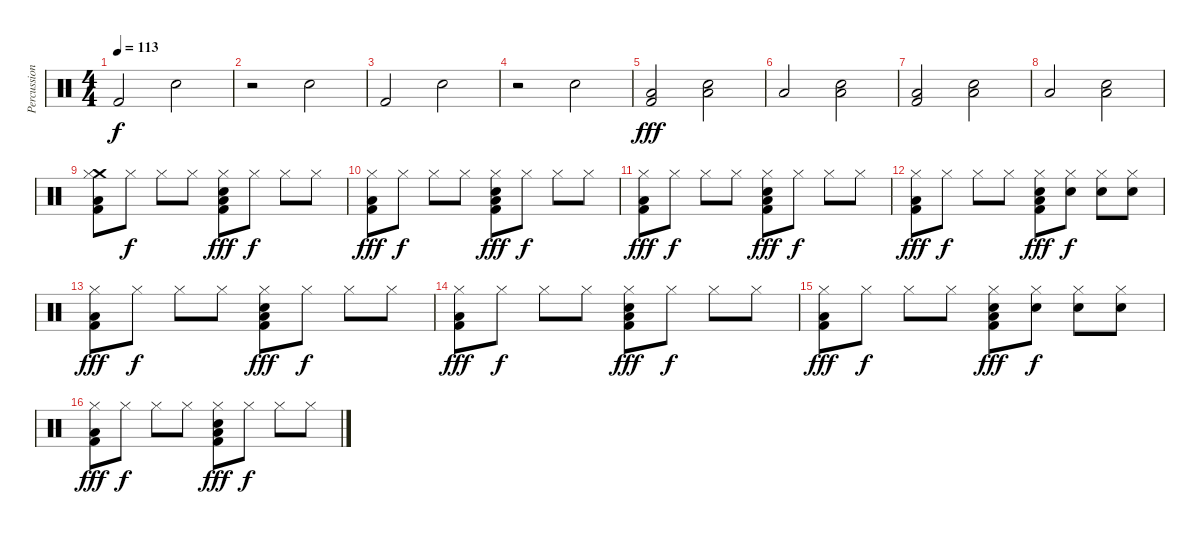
\track ("Percussion" "Percussion") {instrument percussion}
\staff {score}
\articulation defaults
\ts (4 4)
\tempo 113
\clef neutral
\ks c "Kick (hit) 2".2{dy f} "Electric Snare (hit)".2
|
r.2 "Electric Snare (hit)".2 |
"Kick (hit) 2".2 "Electric Snare (hit)".2 |
r.2 "Electric Snare (hit)".2 |
("Low Floor Tom (hit)" "Kick (hit) 2").2{dy fff} ("Low Floor Tom (hit)" "Electric Snare (hit)").2 |
"Low Floor Tom (hit)".2 ("Low Floor Tom (hit)" "Electric Snare (hit)").2 |
("Low Floor Tom (hit)" "Kick (hit) 2").2 ("Low Floor Tom (hit)" "Electric Snare (hit)").2 |
"Low Floor Tom (hit)".2 ("Low Floor Tom (hit)" "Electric Snare (hit)").2 |
("Crash medium (hit)" "Low Floor Tom (hit)" "Hi-Hat (closed)" "Kick (hit) 2").8 "Hi-Hat (closed)".8{dy f} "Hi-Hat (closed)".8 "Hi-Hat (closed)".8 ("Low Floor Tom (hit)" "Hi-Hat (closed)" "Electric Snare (hit)" "Kick (hit) 2").8{dy fff} "Hi-Hat (closed)".8{dy f} "Hi-Hat (closed)".8 "Hi-Hat (closed)".8 |
("Low Floor Tom (hit)" "Hi-Hat (closed)" "Kick (hit) 2").8{dy fff} "Hi-Hat (closed)".8{dy f} "Hi-Hat (closed)".8 "Hi-Hat (closed)".8 ("Low Floor Tom (hit)" "Hi-Hat (closed)" "Electric Snare (hit)" "Kick (hit) 2").8{dy fff} "Hi-Hat (closed)".8{dy f} "Hi-Hat (closed)".8 "Hi-Hat (closed)".8 |
("Low Floor Tom (hit)" "Hi-Hat (closed)" "Kick (hit) 2").8{dy fff} "Hi-Hat (closed)".8{dy f} "Hi-Hat (closed)".8 "Hi-Hat (closed)".8 ("Low Floor Tom (hit)" "Hi-Hat (closed)" "Electric Snare (hit)" "Kick (hit) 2").8{dy fff} "Hi-Hat (closed)".8{dy f} "Hi-Hat (closed)".8 "Hi-Hat (closed)".8 |
("Low Floor Tom (hit)" "Hi-Hat (closed)" "Kick (hit) 2").8{dy fff} "Hi-Hat (closed)".8{dy f} "Hi-Hat (closed)".8 "Hi-Hat (closed)".8 ("Low Floor Tom (hit)" "Hi-Hat (closed)" "Electric Snare (hit)" "Kick (hit) 2").8{dy fff} ("Snare (hit) 2" "Hi-Hat (closed)").8{dy f} ("Snare (hit) 2" "Hi-Hat (closed)").8 ("Snare (hit) 2" "Hi-Hat (closed)").8 |
("Low Floor Tom (hit)" "Hi-Hat (closed)" "Kick (hit) 2").8{dy fff} "Hi-Hat (closed)".8{dy f} "Hi-Hat (closed)".8 "Hi-Hat (closed)".8 ("Low Floor Tom (hit)" "Hi-Hat (closed)" "Electric Snare (hit)" "Kick (hit) 2").8{dy fff} "Hi-Hat (closed)".8{dy f} "Hi-Hat (closed)".8 "Hi-Hat (closed)".8 |
("Low Floor Tom (hit)" "Hi-Hat (closed)" "Kick (hit) 2").8{dy fff} "Hi-Hat (closed)".8{dy f} "Hi-Hat (closed)".8 "Hi-Hat (closed)".8 ("Low Floor Tom (hit)" "Hi-Hat (closed)" "Electric Snare (hit)" "Kick (hit) 2").8{dy fff} "Hi-Hat (closed)".8{dy f} "Hi-Hat (closed)".8 "Hi-Hat (closed)".8 |
("Low Floor Tom (hit)" "Hi-Hat (closed)" "Kick (hit) 2").8{dy fff} "Hi-Hat (closed)".8{dy f} "Hi-Hat (closed)".8 "Hi-Hat (closed)".8 ("Low Floor Tom (hit)" "Hi-Hat (closed)" "Electric Snare (hit)" "Kick (hit) 2").8{dy fff} ("Snare (hit) 2" "Hi-Hat (closed)").8{dy f} ("Snare (hit) 2" "Hi-Hat (closed)").8 ("Snare (hit) 2" "Hi-Hat (closed)").8 |
("Low Floor Tom (hit)" "Hi-Hat (closed)" "Kick (hit) 2").8{dy fff} "Hi-Hat (closed)".8{dy f} "Hi-Hat (closed)".8 "Hi-Hat (closed)".8 ("Low Floor Tom (hit)" "Hi-Hat (closed)" "Electric Snare (hit)" "Kick (hit) 2").8{dy fff} "Hi-Hat (closed)".8{dy f} "Hi-Hat (closed)".8 "Hi-Hat (closed)".8
